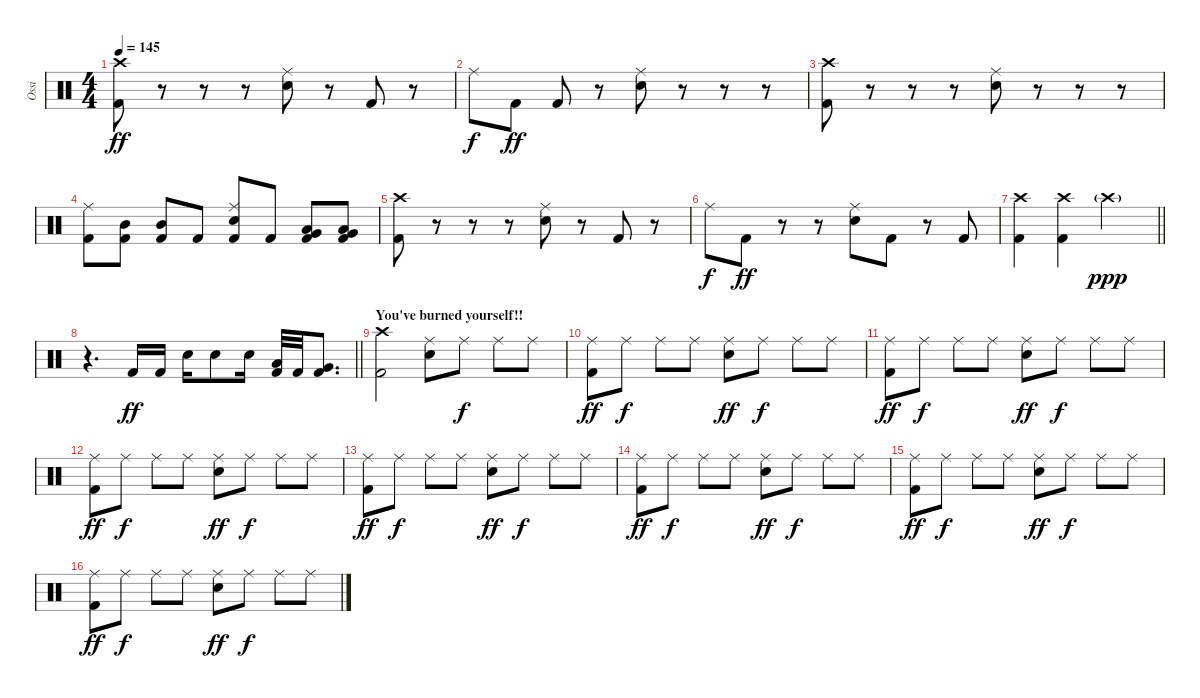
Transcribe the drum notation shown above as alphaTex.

\track ("Ossi" "Ossi") {instrument percussion}
\staff {score}
\articulation defaults
\ts (4 4)
\tempo 145
\clef neutral
\ks c
("Crash high (hit)" "Kick (hit) 2").8{dy ff} r.8 r.8 r.8 ("Ride (middle)" "Electric Snare (hit)").8 r.8 "Kick (hit) 2".8 r.8 |
"Ride (middle)".8{dy f} "Kick (hit) 2".8{dy ff} "Kick (hit) 2".8 r.8 ("Ride (middle)" "Electric Snare (hit)").8 r.8 r.8 r.8 |
("Crash high (hit)" "Kick (hit) 2").8 r.8 r.8 r.8 ("Ride (middle)" "Electric Snare (hit)").8 r.8 r.8 r.8 |
("Ride (middle)" "Kick (hit) 2").8 ("Mid Tom (hit)" "Kick (hit) 2").8 ("Mid Tom (hit)" "Kick (hit) 2").8 "Kick (hit) 2".8 ("Ride (middle)" "Electric Snare (hit)" "Kick (hit) 2").8 "Kick (hit) 2".8 ("Low Tom (hit)" "Very Low Tom (hit)" "Kick (hit) 2").8 ("Low Tom (hit)" "Very Low Tom (hit)" "Kick (hit) 2").8 |
("Crash high (hit)" "Kick (hit) 2").8 r.8 r.8 r.8 ("Ride (middle)" "Electric Snare (hit)").8 r.8 "Kick (hit) 2".8 r.8 |
"Ride (middle)".8{dy f} "Kick (hit) 2".8{dy ff} r.8 r.8 ("Ride (middle)" "Electric Snare (hit)").8 "Kick (hit) 2".8 r.8 "Kick (hit) 2".8 |
\barLineRight lightlight
("Crash high (hit)" "Kick (hit) 2").4 ("Crash high (hit)" "Kick (hit) 2").4 "Crash high (hit)"{g}.2{dy ppp} |
\barLineRight lightlight
r.4{d} "Kick (hit) 2".16{dy ff} "Kick (hit) 2".16 "Electric Snare (hit)".16 "Electric Snare (hit)".8 "Electric Snare (hit)".16 ("Low Tom (hit)" "Kick (hit) 2").32 "Kick (hit) 2".32 ("Very Low Tom (hit)" "Kick (hit) 2").8{d} |
\section ("" "You've burned yourself!!")
("Crash high (hit)" "Kick (hit) 2").2 ("Ride (middle)" "Electric Snare (hit)").8 "Ride (middle)".8{dy f} "Ride (middle)".8 "Ride (middle)".8 |
("Ride (middle)" "Kick (hit) 2").8{dy ff} "Ride (middle)".8{dy f} "Ride (middle)".8 "Ride (middle)".8 ("Ride (middle)" "Electric Snare (hit)").8{dy ff} "Ride (middle)".8{dy f} "Ride (middle)".8 "Ride (middle)".8 |
("Ride (middle)" "Kick (hit) 2").8{dy ff} "Ride (middle)".8{dy f} "Ride (middle)".8 "Ride (middle)".8 ("Ride (middle)" "Electric Snare (hit)").8{dy ff} "Ride (middle)".8{dy f} "Ride (middle)".8 "Ride (middle)".8 |
("Ride (middle)" "Kick (hit) 2").8{dy ff} "Ride (middle)".8{dy f} "Ride (middle)".8 "Ride (middle)".8 ("Ride (middle)" "Electric Snare (hit)").8{dy ff} "Ride (middle)".8{dy f} "Ride (middle)".8 "Ride (middle)".8 |
("Ride (middle)" "Kick (hit) 2").8{dy ff} "Ride (middle)".8{dy f} "Ride (middle)".8 "Ride (middle)".8 ("Ride (middle)" "Electric Snare (hit)").8{dy ff} "Ride (middle)".8{dy f} "Ride (middle)".8 "Ride (middle)".8 |
("Ride (middle)" "Kick (hit) 2").8{dy ff} "Ride (middle)".8{dy f} "Ride (middle)".8 "Ride (middle)".8 ("Ride (middle)" "Electric Snare (hit)").8{dy ff} "Ride (middle)".8{dy f} "Ride (middle)".8 "Ride (middle)".8 |
("Ride (middle)" "Kick (hit) 2").8{dy ff} "Ride (middle)".8{dy f} "Ride (middle)".8 "Ride (middle)".8 ("Ride (middle)" "Electric Snare (hit)").8{dy ff} "Ride (middle)".8{dy f} "Ride (middle)".8 "Ride (middle)".8 |
("Ride (middle)" "Kick (hit) 2").8{dy ff} "Ride (middle)".8{dy f} "Ride (middle)".8 "Ride (middle)".8 ("Ride (middle)" "Electric Snare (hit)").8{dy ff} "Ride (middle)".8{dy f} "Ride (middle)".8 "Ride (middle)".8
